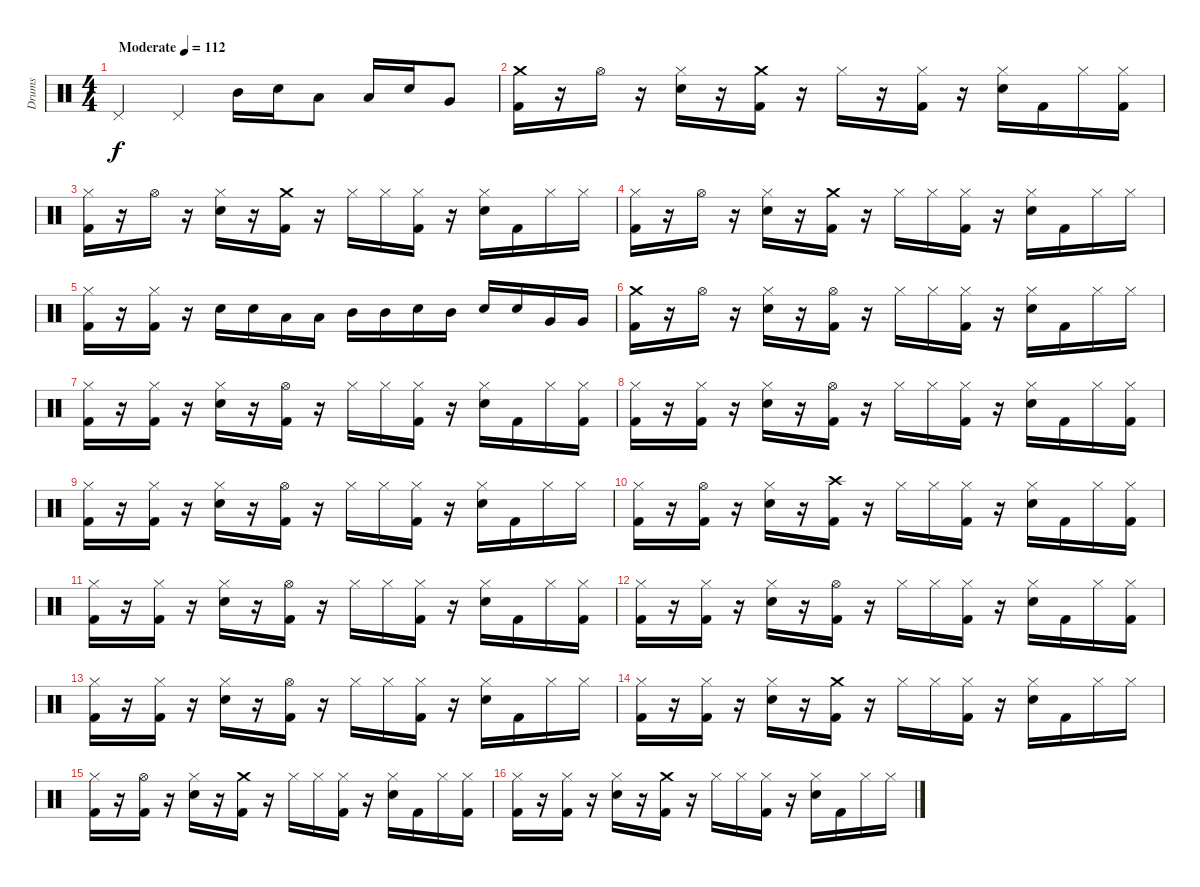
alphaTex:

\track ("Drums" "Drums") {instrument percussion}
\staff {score}
\articulation defaults
\ts (4 4)
\tempo (112 "Moderate")
\clef neutral
\ks c "Pedal Hi-Hat (hit)".4{dy f} "Pedal Hi-Hat (hit)".4 "Mid Tom (hit)".16 "Snare (hit) 2".16 "Low Floor Tom (hit)".8 "Low Floor Tom (hit)".16 "Snare (hit) 2".16 "Very Low Tom (hit)".8
|
("Crash medium (hit)" "Kick (hit) 2").16 r.16 "Hi-Hat (open)".16 r.16 ("Hi-Hat (closed)" "Snare (hit) 2").16 r.16 ("Crash medium (hit)" "Kick (hit) 2").16 r.16 "Hi-Hat (closed)".16 r.16 ("Hi-Hat (closed)" "Kick (hit) 2").16 r.16 ("Hi-Hat (closed)" "Snare (hit) 2").16 "Kick (hit) 2".16 "Hi-Hat (closed)".16 ("Hi-Hat (closed)" "Kick (hit) 2").16 |
("Hi-Hat (closed)" "Kick (hit) 2").16 r.16 "Hi-Hat (open)".16 r.16 ("Hi-Hat (closed)" "Snare (hit) 2").16 r.16 ("Crash medium (hit)" "Kick (hit) 2").16 r.16 "Hi-Hat (closed)".16 "Hi-Hat (closed)".16 ("Hi-Hat (closed)" "Kick (hit) 2").16 r.16 ("Hi-Hat (closed)" "Snare (hit) 2").16 "Kick (hit) 2".16 "Hi-Hat (closed)".16 "Hi-Hat (closed)".16 |
("Hi-Hat (closed)" "Kick (hit) 2").16 r.16 "Hi-Hat (open)".16 r.16 ("Hi-Hat (closed)" "Snare (hit) 2").16 r.16 ("Crash medium (hit)" "Kick (hit) 2").16 r.16 "Hi-Hat (closed)".16 "Hi-Hat (closed)".16 ("Hi-Hat (closed)" "Kick (hit) 2").16 r.16 ("Hi-Hat (closed)" "Snare (hit) 2").16 "Kick (hit) 2".16 "Hi-Hat (closed)".16 "Hi-Hat (closed)".16 |
("Hi-Hat (closed)" "Kick (hit) 2").16 r.16 ("Hi-Hat (closed)" "Kick (hit) 2").16 r.16 "Snare (hit) 2".16 "Snare (hit) 2".16 "Low Tom (hit)".16 "Low Tom (hit)".16 "Mid Tom (hit)".16 "Mid Tom (hit)".16 "Snare (hit) 2".16 "Mid Tom (hit)".16 "Snare (hit) 2".16 "Snare (hit) 2".16 "Very Low Tom (hit)".16 "Very Low Tom (hit)".16 |
("Crash medium (hit)" "Kick (hit) 2").16 r.16 "Hi-Hat (open)".16 r.16 ("Hi-Hat (closed)" "Snare (hit) 2").16 r.16 ("Hi-Hat (open)" "Kick (hit) 2").16 r.16 "Hi-Hat (closed)".16 "Hi-Hat (closed)".16 ("Hi-Hat (closed)" "Kick (hit) 2").16 r.16 ("Hi-Hat (closed)" "Snare (hit) 2").16 "Kick (hit) 2".16 "Hi-Hat (closed)".16 "Hi-Hat (closed)".16 |
("Hi-Hat (closed)" "Kick (hit) 2").16 r.16 ("Hi-Hat (closed)" "Kick (hit) 2").16 r.16 ("Hi-Hat (closed)" "Snare (hit) 2").16 r.16 ("Hi-Hat (open)" "Kick (hit) 2").16 r.16 "Hi-Hat (closed)".16 "Hi-Hat (closed)".16 ("Hi-Hat (closed)" "Kick (hit) 2").16 r.16 ("Hi-Hat (closed)" "Snare (hit) 2").16 "Kick (hit) 2".16 "Hi-Hat (closed)".16 ("Hi-Hat (closed)" "Kick (hit) 2").16 |
("Hi-Hat (closed)" "Kick (hit) 2").16 r.16 ("Hi-Hat (closed)" "Kick (hit) 2").16 r.16 ("Hi-Hat (closed)" "Snare (hit) 2").16 r.16 ("Hi-Hat (open)" "Kick (hit) 2").16 r.16 "Hi-Hat (closed)".16 "Hi-Hat (closed)".16 ("Hi-Hat (closed)" "Kick (hit) 2").16 r.16 ("Hi-Hat (closed)" "Snare (hit) 2").16 "Kick (hit) 2".16 "Hi-Hat (closed)".16 ("Hi-Hat (closed)" "Kick (hit) 2").16 |
("Hi-Hat (closed)" "Kick (hit) 2").16 r.16 ("Hi-Hat (closed)" "Kick (hit) 2").16 r.16 ("Hi-Hat (closed)" "Snare (hit) 2").16 r.16 ("Hi-Hat (open)" "Kick (hit) 2").16 r.16 "Hi-Hat (closed)".16 "Hi-Hat (closed)".16 ("Hi-Hat (closed)" "Kick (hit) 2").16 r.16 ("Hi-Hat (closed)" "Snare (hit) 2").16 "Kick (hit) 2".16 "Hi-Hat (closed)".16 "Hi-Hat (closed)".16 |
("Hi-Hat (closed)" "Kick (hit) 2").16 r.16 ("Hi-Hat (open)" "Kick (hit) 2").16 r.16 ("Hi-Hat (closed)" "Snare (hit) 2").16 r.16 ("Crash high (hit)" "Kick (hit) 2").16 r.16 "Hi-Hat (closed)".16 "Hi-Hat (closed)".16 ("Hi-Hat (closed)" "Kick (hit) 2").16 r.16 ("Hi-Hat (closed)" "Snare (hit) 2").16 "Kick (hit) 2".16 "Hi-Hat (closed)".16 ("Hi-Hat (closed)" "Kick (hit) 2").16 |
("Hi-Hat (closed)" "Kick (hit) 2").16 r.16 ("Hi-Hat (closed)" "Kick (hit) 2").16 r.16 ("Hi-Hat (closed)" "Snare (hit) 2").16 r.16 ("Hi-Hat (open)" "Kick (hit) 2").16 r.16 "Hi-Hat (closed)".16 "Hi-Hat (closed)".16 ("Hi-Hat (closed)" "Kick (hit) 2").16 r.16 ("Hi-Hat (closed)" "Snare (hit) 2").16 "Kick (hit) 2".16 "Hi-Hat (closed)".16 ("Hi-Hat (closed)" "Kick (hit) 2").16 |
("Hi-Hat (closed)" "Kick (hit) 2").16 r.16 ("Hi-Hat (closed)" "Kick (hit) 2").16 r.16 ("Hi-Hat (closed)" "Snare (hit) 2").16 r.16 ("Hi-Hat (open)" "Kick (hit) 2").16 r.16 "Hi-Hat (closed)".16 "Hi-Hat (closed)".16 ("Hi-Hat (closed)" "Kick (hit) 2").16 r.16 ("Hi-Hat (closed)" "Snare (hit) 2").16 "Kick (hit) 2".16 "Hi-Hat (closed)".16 ("Hi-Hat (closed)" "Kick (hit) 2").16 |
("Hi-Hat (closed)" "Kick (hit) 2").16 r.16 ("Hi-Hat (closed)" "Kick (hit) 2").16 r.16 ("Hi-Hat (closed)" "Snare (hit) 2").16 r.16 ("Hi-Hat (open)" "Kick (hit) 2").16 r.16 "Hi-Hat (closed)".16 "Hi-Hat (closed)".16 ("Hi-Hat (closed)" "Kick (hit) 2").16 r.16 ("Hi-Hat (closed)" "Snare (hit) 2").16 "Kick (hit) 2".16 "Hi-Hat (closed)".16 "Hi-Hat (closed)".16 |
("Hi-Hat (closed)" "Kick (hit) 2").16 r.16 ("Hi-Hat (closed)" "Kick (hit) 2").16 r.16 ("Hi-Hat (closed)" "Snare (hit) 2").16 r.16 ("Crash medium (hit)" "Kick (hit) 2").16 r.16 "Hi-Hat (closed)".16 "Hi-Hat (closed)".16 ("Hi-Hat (closed)" "Kick (hit) 2").16 r.16 ("Hi-Hat (closed)" "Snare (hit) 2").16 "Kick (hit) 2".16 "Hi-Hat (closed)".16 "Hi-Hat (closed)".16 |
("Hi-Hat (closed)" "Kick (hit) 2").16 r.16 ("Hi-Hat (open)" "Kick (hit) 2").16 r.16 ("Hi-Hat (closed)" "Snare (hit) 2").16 r.16 ("Crash medium (hit)" "Kick (hit) 2").16 r.16 "Hi-Hat (closed)".16 "Hi-Hat (closed)".16 ("Hi-Hat (closed)" "Kick (hit) 2").16 r.16 ("Hi-Hat (closed)" "Snare (hit) 2").16 "Kick (hit) 2".16 "Hi-Hat (closed)".16 ("Hi-Hat (closed)" "Kick (hit) 2").16 |
("Hi-Hat (closed)" "Kick (hit) 2").16 r.16 ("Hi-Hat (closed)" "Kick (hit) 2").16 r.16 ("Hi-Hat (closed)" "Snare (hit) 2").16 r.16 ("Crash medium (hit)" "Kick (hit) 2").16 r.16 "Hi-Hat (closed)".16 "Hi-Hat (closed)".16 ("Hi-Hat (closed)" "Kick (hit) 2").16 r.16 ("Hi-Hat (closed)" "Snare (hit) 2").16 "Kick (hit) 2".16 "Hi-Hat (closed)".16 "Hi-Hat (closed)".16
